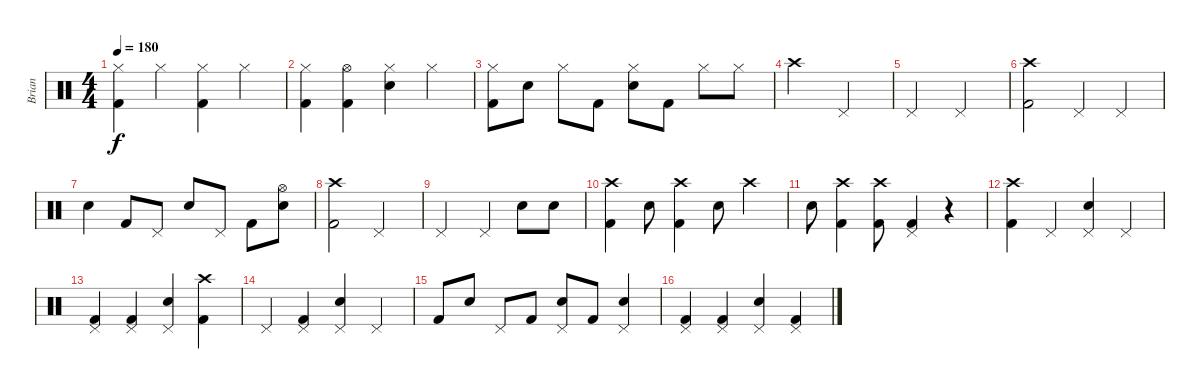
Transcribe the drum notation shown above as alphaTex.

\track ("Brian" "Brian") {instrument percussion}
\staff {score}
\articulation defaults
\ts (4 4)
\tempo 180
\clef neutral
\ks c
("Hi-Hat (closed)" "Kick (hit) 2").4{dy f} "Hi-Hat (closed)".4 ("Hi-Hat (closed)" "Kick (hit) 2").4 "Hi-Hat (closed)".4 |
("Hi-Hat (closed)" "Kick (hit) 2").4 ("Hi-Hat (open)" "Kick (hit) 2").4 ("Hi-Hat (closed)" "Snare (hit) 2").4 "Hi-Hat (closed)".4 |
("Hi-Hat (closed)" "Kick (hit) 2").8 "Snare (hit) 2".8 "Hi-Hat (closed)".8 "Kick (hit) 2".8 ("Hi-Hat (closed)" "Snare (hit) 2").8 "Kick (hit) 2".8 "Hi-Hat (closed)".8 "Hi-Hat (closed)".8 |
"Crash high (hit)".2 "Pedal Hi-Hat (hit)".2 |
"Pedal Hi-Hat (hit)".2 "Pedal Hi-Hat (hit)".2 |
("Crash high (hit)" "Kick (hit) 2").2 "Pedal Hi-Hat (hit)".4 "Pedal Hi-Hat (hit)".4 |
"Snare (hit) 2".4 "Kick (hit) 2".8 "Pedal Hi-Hat (hit)".8 "Snare (hit) 2".8 "Pedal Hi-Hat (hit)".8 "Kick (hit) 2".8 ("Hi-Hat (open)" "Snare (hit) 2").8 |
("Crash high (hit)" "Kick (hit) 2").2 "Pedal Hi-Hat (hit)".2 |
"Pedal Hi-Hat (hit)".2 "Pedal Hi-Hat (hit)".4 "Snare (hit) 2".8 "Snare (hit) 2".8 |
("Crash high (hit)" "Kick (hit) 2").4 "Snare (hit) 2".8 ("Crash high (hit)" "Kick (hit) 2").4 "Snare (hit) 2".8 "Crash high (hit)".4 |
"Snare (hit) 2".8 ("Crash high (hit)" "Kick (hit) 2").4 ("Crash high (hit)" "Kick (hit) 2").8 ("Pedal Hi-Hat (hit)" "Kick (hit) 2").4 r.4 |
("Crash high (hit)" "Kick (hit) 2").4 "Pedal Hi-Hat (hit)".4 ("Pedal Hi-Hat (hit)" "Snare (hit) 2").4 "Pedal Hi-Hat (hit)".4 |
("Pedal Hi-Hat (hit)" "Kick (hit) 2").4 ("Pedal Hi-Hat (hit)" "Kick (hit) 2").4 ("Pedal Hi-Hat (hit)" "Snare (hit) 2").4 ("Crash high (hit)" "Kick (hit) 2").4 |
"Pedal Hi-Hat (hit)".4 ("Pedal Hi-Hat (hit)" "Kick (hit) 2").4 ("Pedal Hi-Hat (hit)" "Snare (hit) 2").4 "Pedal Hi-Hat (hit)".4 |
"Kick (hit) 2".8 "Snare (hit) 2".8 "Pedal Hi-Hat (hit)".8 "Kick (hit) 2".8 ("Pedal Hi-Hat (hit)" "Snare (hit) 2").8 "Kick (hit) 2".8 ("Pedal Hi-Hat (hit)" "Snare (hit) 2").4 |
("Pedal Hi-Hat (hit)" "Kick (hit) 2").4 ("Pedal Hi-Hat (hit)" "Kick (hit) 2").4 ("Pedal Hi-Hat (hit)" "Snare (hit) 2").4 ("Pedal Hi-Hat (hit)" "Kick (hit) 2").4
